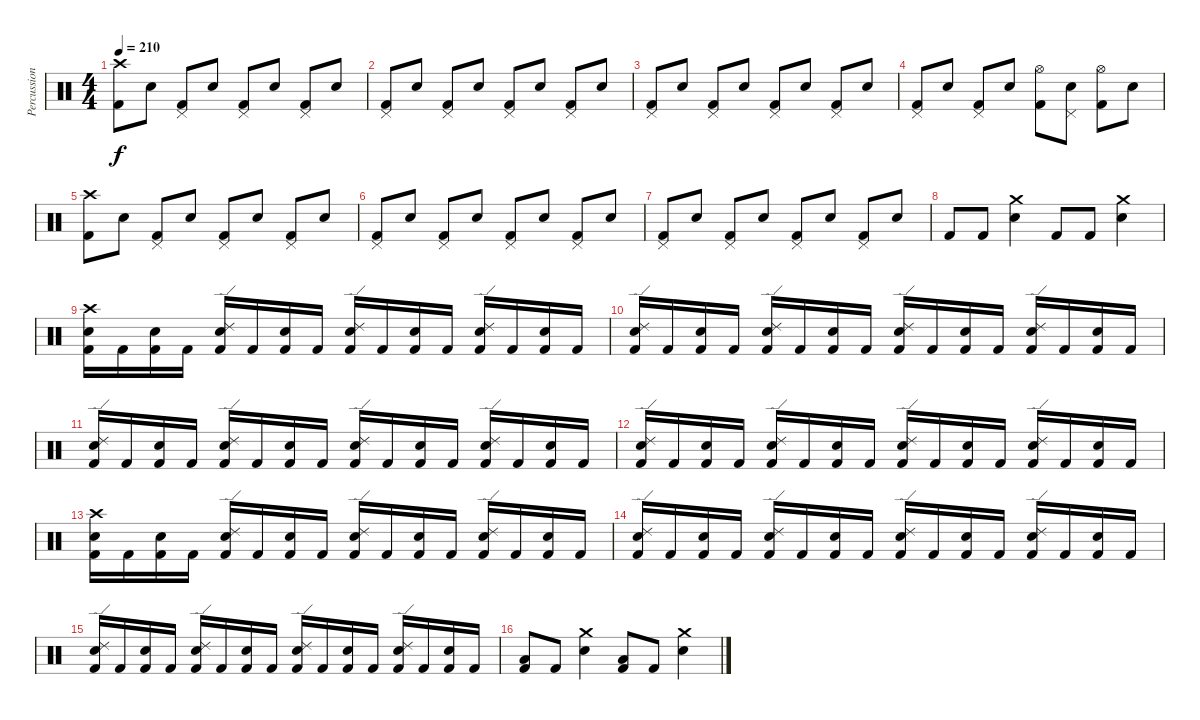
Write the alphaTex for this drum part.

\track ("Percussion" "Percussion") {instrument percussion}
\staff {score}
\articulation defaults
\ts (4 4)
\tempo 210
\clef neutral
\ks c
("Crash high (hit)" "Kick (hit) 2").8{dy f} "Snare (hit) 2".8 ("Pedal Hi-Hat (hit)" "Kick (hit) 2").8 "Snare (hit) 2".8 ("Pedal Hi-Hat (hit)" "Kick (hit) 2").8 "Snare (hit) 2".8 ("Pedal Hi-Hat (hit)" "Kick (hit) 2").8 "Snare (hit) 2".8 |
("Pedal Hi-Hat (hit)" "Kick (hit) 2").8 "Snare (hit) 2".8 ("Pedal Hi-Hat (hit)" "Kick (hit) 2").8 "Snare (hit) 2".8 ("Pedal Hi-Hat (hit)" "Kick (hit) 2").8 "Snare (hit) 2".8 ("Pedal Hi-Hat (hit)" "Kick (hit) 2").8 "Snare (hit) 2".8 |
("Pedal Hi-Hat (hit)" "Kick (hit) 2").8 "Snare (hit) 2".8 ("Pedal Hi-Hat (hit)" "Kick (hit) 2").8 "Snare (hit) 2".8 ("Pedal Hi-Hat (hit)" "Kick (hit) 2").8 "Snare (hit) 2".8 ("Pedal Hi-Hat (hit)" "Kick (hit) 2").8 "Snare (hit) 2".8 |
("Pedal Hi-Hat (hit)" "Kick (hit) 2").8 "Snare (hit) 2".8 ("Pedal Hi-Hat (hit)" "Kick (hit) 2").8 "Snare (hit) 2".8 ("Hi-Hat (open)" "Kick (hit) 2").8 ("Pedal Hi-Hat (hit)" "Snare (hit) 2").8 ("Hi-Hat (open)" "Kick (hit) 2").8 "Snare (hit) 2".8 |
("Crash high (hit)" "Kick (hit) 2").8 "Snare (hit) 2".8 ("Pedal Hi-Hat (hit)" "Kick (hit) 2").8 "Snare (hit) 2".8 ("Pedal Hi-Hat (hit)" "Kick (hit) 2").8 "Snare (hit) 2".8 ("Pedal Hi-Hat (hit)" "Kick (hit) 2").8 "Snare (hit) 2".8 |
("Pedal Hi-Hat (hit)" "Kick (hit) 2").8 "Snare (hit) 2".8 ("Pedal Hi-Hat (hit)" "Kick (hit) 2").8 "Snare (hit) 2".8 ("Pedal Hi-Hat (hit)" "Kick (hit) 2").8 "Snare (hit) 2".8 ("Pedal Hi-Hat (hit)" "Kick (hit) 2").8 "Snare (hit) 2".8 |
("Pedal Hi-Hat (hit)" "Kick (hit) 2").8 "Snare (hit) 2".8 ("Pedal Hi-Hat (hit)" "Kick (hit) 2").8 "Snare (hit) 2".8 ("Pedal Hi-Hat (hit)" "Kick (hit) 2").8 "Snare (hit) 2".8 ("Pedal Hi-Hat (hit)" "Kick (hit) 2").8 "Snare (hit) 2".8 |
"Kick (hit) 2".8{volume 14} "Kick (hit) 2".8 ("Crash medium (hit)" "Snare (hit) 2").4 "Kick (hit) 2".8 "Kick (hit) 2".8 ("Crash medium (hit)" "Snare (hit) 2").4 |
("Crash high (hit)" "Snare (hit) 2" "Kick (hit) 2").16 "Kick (hit) 2".16 ("Snare (hit) 2" "Kick (hit) 2").16 "Kick (hit) 2".16 ("Ride (edge) 2" "Snare (hit) 2" "Kick (hit) 2").16 "Kick (hit) 2".16 ("Snare (hit) 2" "Kick (hit) 2").16 "Kick (hit) 2".16 ("Ride (edge) 2" "Snare (hit) 2" "Kick (hit) 2").16 "Kick (hit) 2".16 ("Snare (hit) 2" "Kick (hit) 2").16 "Kick (hit) 2".16 ("Ride (edge) 2" "Snare (hit) 2" "Kick (hit) 2").16 "Kick (hit) 2".16 ("Snare (hit) 2" "Kick (hit) 2").16 "Kick (hit) 2".16 |
("Ride (edge) 2" "Snare (hit) 2" "Kick (hit) 2").16 "Kick (hit) 2".16 ("Snare (hit) 2" "Kick (hit) 2").16 "Kick (hit) 2".16 ("Ride (edge) 2" "Snare (hit) 2" "Kick (hit) 2").16 "Kick (hit) 2".16 ("Snare (hit) 2" "Kick (hit) 2").16 "Kick (hit) 2".16 ("Ride (edge) 2" "Snare (hit) 2" "Kick (hit) 2").16 "Kick (hit) 2".16 ("Snare (hit) 2" "Kick (hit) 2").16 "Kick (hit) 2".16 ("Ride (edge) 2" "Snare (hit) 2" "Kick (hit) 2").16 "Kick (hit) 2".16 ("Snare (hit) 2" "Kick (hit) 2").16 "Kick (hit) 2".16 |
("Ride (edge) 2" "Snare (hit) 2" "Kick (hit) 2").16 "Kick (hit) 2".16 ("Snare (hit) 2" "Kick (hit) 2").16 "Kick (hit) 2".16 ("Ride (edge) 2" "Snare (hit) 2" "Kick (hit) 2").16 "Kick (hit) 2".16 ("Snare (hit) 2" "Kick (hit) 2").16 "Kick (hit) 2".16 ("Ride (edge) 2" "Snare (hit) 2" "Kick (hit) 2").16 "Kick (hit) 2".16 ("Snare (hit) 2" "Kick (hit) 2").16 "Kick (hit) 2".16 ("Ride (edge) 2" "Snare (hit) 2" "Kick (hit) 2").16 "Kick (hit) 2".16 ("Snare (hit) 2" "Kick (hit) 2").16 "Kick (hit) 2".16 |
("Ride (edge) 2" "Snare (hit) 2" "Kick (hit) 2").16 "Kick (hit) 2".16 ("Snare (hit) 2" "Kick (hit) 2").16 "Kick (hit) 2".16 ("Ride (edge) 2" "Snare (hit) 2" "Kick (hit) 2").16 "Kick (hit) 2".16 ("Snare (hit) 2" "Kick (hit) 2").16 "Kick (hit) 2".16 ("Ride (edge) 2" "Snare (hit) 2" "Kick (hit) 2").16 "Kick (hit) 2".16 ("Snare (hit) 2" "Kick (hit) 2").16 "Kick (hit) 2".16 ("Ride (edge) 2" "Snare (hit) 2" "Kick (hit) 2").16 "Kick (hit) 2".16 ("Snare (hit) 2" "Kick (hit) 2").16 "Kick (hit) 2".16 |
("Crash high (hit)" "Snare (hit) 2" "Kick (hit) 2").16 "Kick (hit) 2".16 ("Snare (hit) 2" "Kick (hit) 2").16 "Kick (hit) 2".16 ("Ride (edge) 2" "Snare (hit) 2" "Kick (hit) 2").16 "Kick (hit) 2".16 ("Snare (hit) 2" "Kick (hit) 2").16 "Kick (hit) 2".16 ("Ride (edge) 2" "Snare (hit) 2" "Kick (hit) 2").16 "Kick (hit) 2".16 ("Snare (hit) 2" "Kick (hit) 2").16 "Kick (hit) 2".16 ("Ride (edge) 2" "Snare (hit) 2" "Kick (hit) 2").16 "Kick (hit) 2".16 ("Snare (hit) 2" "Kick (hit) 2").16 "Kick (hit) 2".16 |
("Ride (edge) 2" "Snare (hit) 2" "Kick (hit) 2").16 "Kick (hit) 2".16 ("Snare (hit) 2" "Kick (hit) 2").16 "Kick (hit) 2".16 ("Ride (edge) 2" "Snare (hit) 2" "Kick (hit) 2").16 "Kick (hit) 2".16 ("Snare (hit) 2" "Kick (hit) 2").16 "Kick (hit) 2".16 ("Ride (edge) 2" "Snare (hit) 2" "Kick (hit) 2").16 "Kick (hit) 2".16 ("Snare (hit) 2" "Kick (hit) 2").16 "Kick (hit) 2".16 ("Ride (edge) 2" "Snare (hit) 2" "Kick (hit) 2").16 "Kick (hit) 2".16 ("Snare (hit) 2" "Kick (hit) 2").16 "Kick (hit) 2".16 |
("Ride (edge) 2" "Snare (hit) 2" "Kick (hit) 2").16 "Kick (hit) 2".16 ("Snare (hit) 2" "Kick (hit) 2").16 "Kick (hit) 2".16 ("Ride (edge) 2" "Snare (hit) 2" "Kick (hit) 2").16 "Kick (hit) 2".16 ("Snare (hit) 2" "Kick (hit) 2").16 "Kick (hit) 2".16 ("Ride (edge) 2" "Snare (hit) 2" "Kick (hit) 2").16 "Kick (hit) 2".16 ("Snare (hit) 2" "Kick (hit) 2").16 "Kick (hit) 2".16 ("Ride (edge) 2" "Snare (hit) 2" "Kick (hit) 2").16 "Kick (hit) 2".16 ("Snare (hit) 2" "Kick (hit) 2").16 "Kick (hit) 2".16 |
("Low Floor Tom (hit)" "Kick (hit) 2").8{volume 14} "Kick (hit) 2".8 ("Crash medium (hit)" "Snare (hit) 2").4 ("Low Floor Tom (hit)" "Kick (hit) 2").8 "Kick (hit) 2".8 ("Crash medium (hit)" "Snare (hit) 2").4
